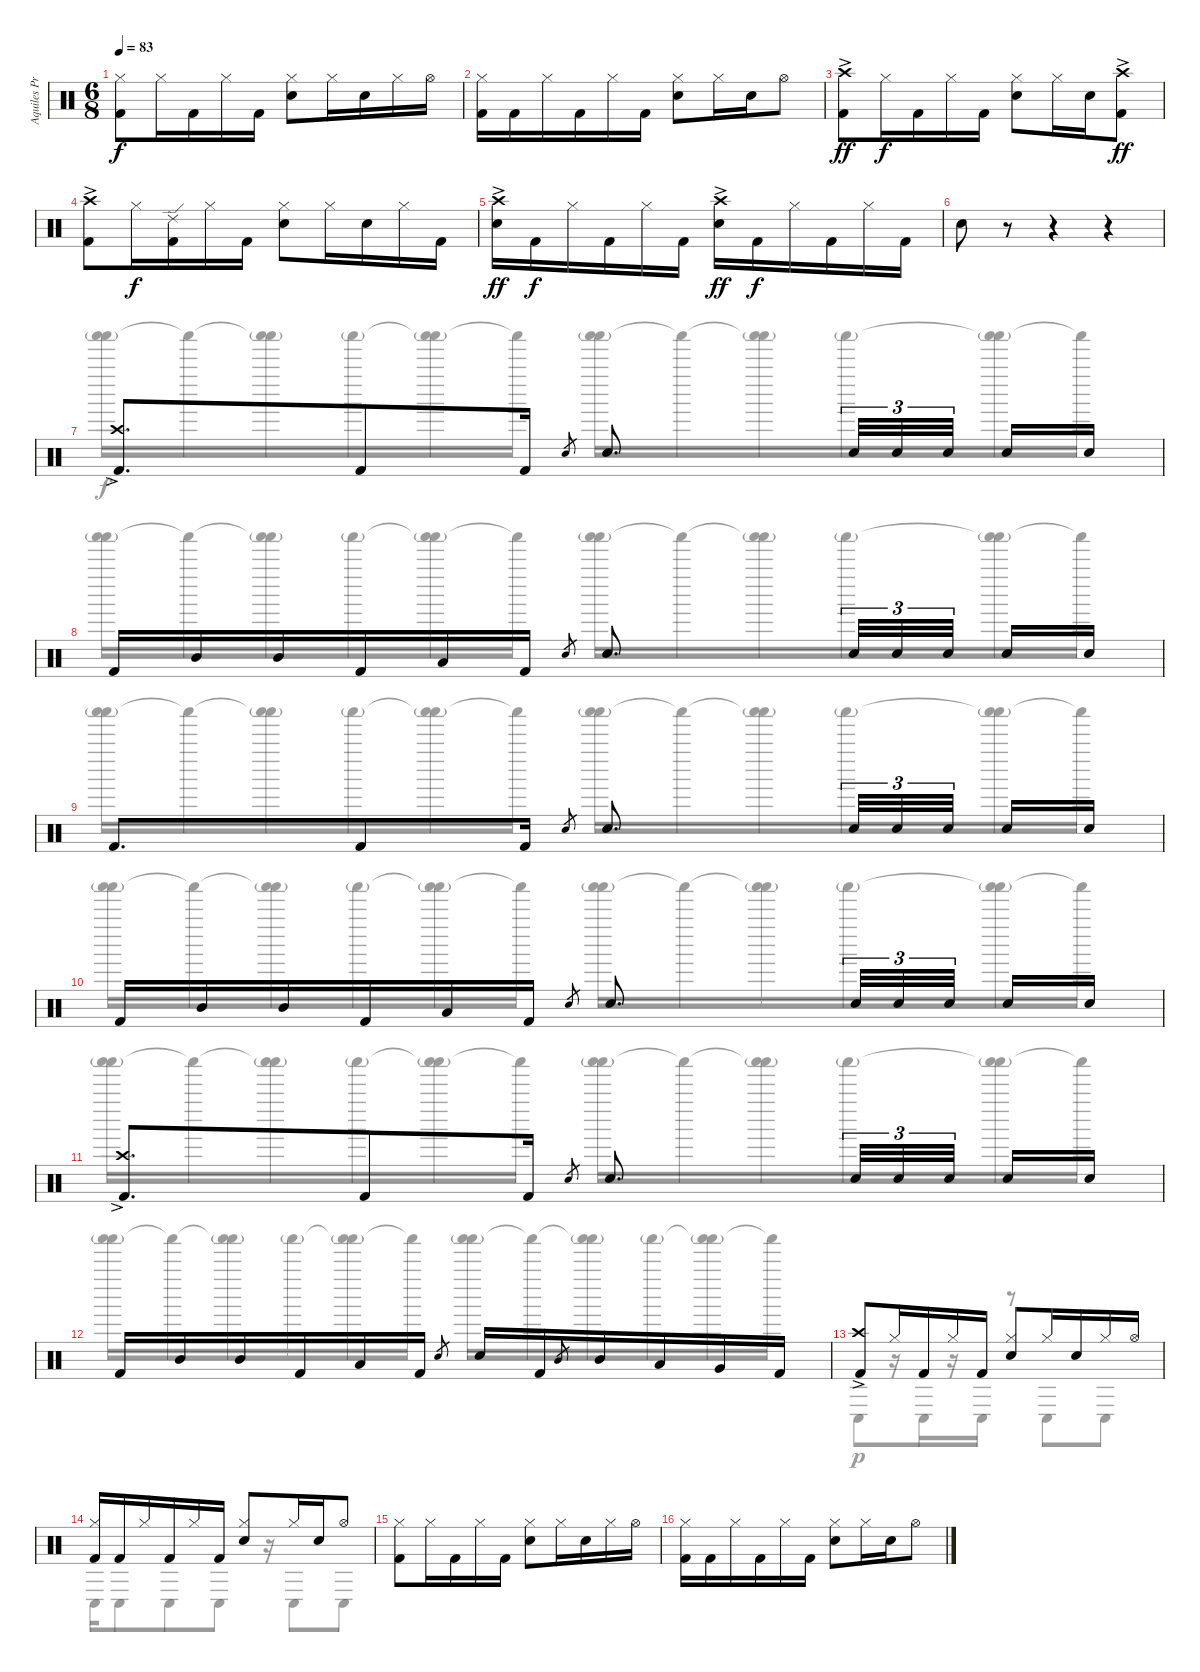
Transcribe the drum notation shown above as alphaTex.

\track ("Aquiles Priester" "Aquiles Pr") {instrument percussion}
\staff {score}
\articulation defaults
\voice
\ts (6 8)
\tempo 83
\clef neutral
\ks c
("Hi-Hat (closed)" "Kick (hit) 2").8{dy f} "Hi-Hat (closed)".16 "Kick (hit) 2".16 "Hi-Hat (closed)".16 "Kick (hit) 2".16 ("Hi-Hat (closed)" "Electric Snare (hit)").8 "Hi-Hat (closed)".16 "Electric Snare (hit)".16 "Hi-Hat (closed)".16 "Hi-Hat (open)".16 |
("Hi-Hat (closed)" "Kick (hit) 2").16 "Kick (hit) 2".16 "Hi-Hat (closed)".16 "Kick (hit) 2".16 "Hi-Hat (closed)".16 "Kick (hit) 2".16 ("Hi-Hat (closed)" "Electric Snare (hit)").8 "Hi-Hat (closed)".16 "Electric Snare (hit)".16 "Hi-Hat (open)".8 |
("Crash high (hit)"{ac} "Kick (hit) 2"{ac}).8{dy ff} "Hi-Hat (closed)".16{dy f} "Kick (hit) 2".16 "Hi-Hat (closed)".16 "Kick (hit) 2".16 ("Hi-Hat (closed)" "Electric Snare (hit)").8 "Hi-Hat (closed)".16 "Electric Snare (hit)".16 ("Crash high (hit)"{ac} "Kick (hit) 2"{ac}).8{dy ff} |
("Crash high (hit)"{ac} "Kick (hit) 2"{ac}).8 "Hi-Hat (closed)".16{dy f} ("Ride (edge) 2" "Kick (hit) 2").16 "Hi-Hat (closed)".16 "Kick (hit) 2".16 ("Hi-Hat (closed)" "Electric Snare (hit)").8 "Hi-Hat (closed)".16 "Electric Snare (hit)".16 "Hi-Hat (closed)".16 "Kick (hit) 2".16 |
("Crash high (hit)"{ac} "Electric Snare (hit)"{ac}).16{dy ff} "Kick (hit) 2".16{dy f} "Hi-Hat (closed)".16 "Kick (hit) 2".16 "Hi-Hat (closed)".16 "Kick (hit) 2".16 ("Crash high (hit)"{ac} "Electric Snare (hit)"{ac}).16{dy ff} "Kick (hit) 2".16{dy f} "Hi-Hat (closed)".16 "Kick (hit) 2".16 "Hi-Hat (closed)".16 "Kick (hit) 2".16 |
"Electric Snare (hit)".8 r.8 r.4 r.4 |
("Crash high (hit)"{ac} "Kick (hit) 2"{ac}).8{d} "Kick (hit) 2".8 "Kick (hit) 2".16 "Electric Snare (hit)".8{gr} "Electric Snare (hit)".8{d} "Electric Snare (hit)".32{tu (3 2)} "Electric Snare (hit)".32{tu (3 2)} "Electric Snare (hit)".32{tu (3 2) beam splitsecondary} "Electric Snare (hit)".16 "Electric Snare (hit)".16 |
"Kick (hit) 2".16 "Mid Tom (hit)".16 "Mid Tom (hit)".16 "Kick (hit) 2".16 "Low Tom (hit)".16 "Kick (hit) 2".16 "Electric Snare (hit)".8{gr} "Electric Snare (hit)".8{d} "Electric Snare (hit)".32{tu (3 2)} "Electric Snare (hit)".32{tu (3 2)} "Electric Snare (hit)".32{tu (3 2) beam splitsecondary} "Electric Snare (hit)".16 "Electric Snare (hit)".16 |
"Kick (hit) 2".8{d} "Kick (hit) 2".8 "Kick (hit) 2".16 "Electric Snare (hit)".8{gr} "Electric Snare (hit)".8{d} "Electric Snare (hit)".32{tu (3 2)} "Electric Snare (hit)".32{tu (3 2)} "Electric Snare (hit)".32{tu (3 2) beam splitsecondary} "Electric Snare (hit)".16 "Electric Snare (hit)".16 |
"Kick (hit) 2".16 "Mid Tom (hit)".16 "Mid Tom (hit)".16 "Kick (hit) 2".16 "Low Tom (hit)".16 "Kick (hit) 2".16 "Electric Snare (hit)".8{gr} "Electric Snare (hit)".8{d} "Electric Snare (hit)".32{tu (3 2)} "Electric Snare (hit)".32{tu (3 2)} "Electric Snare (hit)".32{tu (3 2) beam splitsecondary} "Electric Snare (hit)".16 "Electric Snare (hit)".16 |
("Crash high (hit)"{ac} "Kick (hit) 2"{ac}).8{d} "Kick (hit) 2".8 "Kick (hit) 2".16 "Electric Snare (hit)".8{gr} "Electric Snare (hit)".8{d} "Electric Snare (hit)".32{tu (3 2)} "Electric Snare (hit)".32{tu (3 2)} "Electric Snare (hit)".32{tu (3 2) beam splitsecondary} "Electric Snare (hit)".16 "Electric Snare (hit)".16 |
"Kick (hit) 2".16 "Mid Tom (hit)".16 "Mid Tom (hit)".16 "Kick (hit) 2".16 "Low Tom (hit)".16 "Kick (hit) 2".16 "Electric Snare (hit)".8{gr} "Electric Snare (hit)".16 "Kick (hit) 2".16 "Mid Tom (hit)".8{gr} "Mid Tom (hit)".16 "Low Tom (hit)".16 "Very Low Tom (hit)".16 "Kick (hit) 2".16 |
("Crash high (hit)"{ac} "Kick (hit) 2"{ac}).8 "Hi-Hat (closed)".16 "Kick (hit) 2".16 "Hi-Hat (closed)".16 "Kick (hit) 2".16 ("Hi-Hat (closed)" "Electric Snare (hit)").8 "Hi-Hat (closed)".16 "Electric Snare (hit)".16 "Hi-Hat (closed)".16 "Hi-Hat (open)".16 |
("Hi-Hat (closed)" "Kick (hit) 2").16 "Kick (hit) 2".16 "Hi-Hat (closed)".16 "Kick (hit) 2".16 "Hi-Hat (closed)".16 "Kick (hit) 2".16 ("Electric Snare (hit)" "Hi-Hat (closed)").8 "Hi-Hat (closed)".16 "Electric Snare (hit)".16 "Hi-Hat (open)".8 |
("Hi-Hat (closed)" "Kick (hit) 2").8 "Hi-Hat (closed)".16 "Kick (hit) 2".16 "Hi-Hat (closed)".16 "Kick (hit) 2".16 ("Hi-Hat (closed)" "Electric Snare (hit)").8 "Hi-Hat (closed)".16 "Electric Snare (hit)".16 "Hi-Hat (closed)".16 "Hi-Hat (open)".16 |
("Hi-Hat (closed)" "Kick (hit) 2").16 "Kick (hit) 2".16 "Hi-Hat (closed)".16 "Kick (hit) 2".16 "Hi-Hat (closed)".16 "Kick (hit) 2".16 ("Electric Snare (hit)" "Hi-Hat (closed)").8 "Hi-Hat (closed)".16 "Electric Snare (hit)".16 "Hi-Hat (open)".8
\voice
\clef neutral
\ottava regular
\simile none
\ks c
|
|
|
|
|
|
("Shaker (hit)"{g} "Shaker (hit)"{g}).16 "Shaker (hit)"{t}.16 ("Shaker (hit)"{t} "Shaker (hit)"{g}).16 "Shaker (hit)"{g}.16 ("Shaker (hit)"{t} "Shaker (hit)"{g}).16 "Shaker (hit)"{t}.16 ("Shaker (hit)"{g} "Shaker (hit)"{g}).16 "Shaker (hit)"{t}.16 ("Shaker (hit)"{t} "Shaker (hit)"{g}).16 "Shaker (hit)"{g}.16 ("Shaker (hit)"{t} "Shaker (hit)"{g}).16 "Shaker (hit)"{t}.16 |
("Shaker (hit)"{g} "Shaker (hit)"{g}).16 "Shaker (hit)"{t}.16 ("Shaker (hit)"{t} "Shaker (hit)"{g}).16 "Shaker (hit)"{g}.16 ("Shaker (hit)"{t} "Shaker (hit)"{g}).16 "Shaker (hit)"{t}.16 ("Shaker (hit)"{g} "Shaker (hit)"{g}).16 "Shaker (hit)"{t}.16 ("Shaker (hit)"{t} "Shaker (hit)"{g}).16 "Shaker (hit)"{g}.16 ("Shaker (hit)"{t} "Shaker (hit)"{g}).16 "Shaker (hit)"{t}.16 |
("Shaker (hit)"{g} "Shaker (hit)"{g}).16 "Shaker (hit)"{t}.16 ("Shaker (hit)"{t} "Shaker (hit)"{g}).16 "Shaker (hit)"{g}.16 ("Shaker (hit)"{t} "Shaker (hit)"{g}).16 "Shaker (hit)"{t}.16 ("Shaker (hit)"{g} "Shaker (hit)"{g}).16 "Shaker (hit)"{t}.16 ("Shaker (hit)"{t} "Shaker (hit)"{g}).16 "Shaker (hit)"{g}.16 ("Shaker (hit)"{t} "Shaker (hit)"{g}).16 "Shaker (hit)"{t}.16 |
("Shaker (hit)"{g} "Shaker (hit)"{g}).16 "Shaker (hit)"{t}.16 ("Shaker (hit)"{t} "Shaker (hit)"{g}).16 "Shaker (hit)"{g}.16 ("Shaker (hit)"{t} "Shaker (hit)"{g}).16 "Shaker (hit)"{t}.16 ("Shaker (hit)"{g} "Shaker (hit)"{g}).16 "Shaker (hit)"{t}.16 ("Shaker (hit)"{t} "Shaker (hit)"{g}).16 "Shaker (hit)"{g}.16 ("Shaker (hit)"{t} "Shaker (hit)"{g}).16 "Shaker (hit)"{t}.16 |
("Shaker (hit)"{g} "Shaker (hit)"{g}).16 "Shaker (hit)"{t}.16 ("Shaker (hit)"{t} "Shaker (hit)"{g}).16 "Shaker (hit)"{g}.16 ("Shaker (hit)"{t} "Shaker (hit)"{g}).16 "Shaker (hit)"{t}.16 ("Shaker (hit)"{g} "Shaker (hit)"{g}).16 "Shaker (hit)"{t}.16 ("Shaker (hit)"{t} "Shaker (hit)"{g}).16 "Shaker (hit)"{g}.16 ("Shaker (hit)"{t} "Shaker (hit)"{g}).16 "Shaker (hit)"{t}.16 |
("Shaker (hit)"{g} "Shaker (hit)"{g}).16 "Shaker (hit)"{t}.16 ("Shaker (hit)"{t} "Shaker (hit)"{g}).16 "Shaker (hit)"{g}.16 ("Shaker (hit)"{t} "Shaker (hit)"{g}).16 "Shaker (hit)"{t}.16 ("Shaker (hit)"{g} "Shaker (hit)"{g}).16 "Shaker (hit)"{t}.16 ("Shaker (hit)"{t} "Shaker (hit)"{g}).16 "Shaker (hit)"{g}.16 ("Shaker (hit)"{t} "Shaker (hit)"{g}).16 "Shaker (hit)"{t}.16 |
"Conga low (hit)".8{dy p} r.16 "Conga low (hit)".16 r.16 "Conga low (hit)".16 r.8 "Conga low (hit)".8 "Conga low (hit)".8 |
"Conga low (hit)".16 "Conga low (hit)".8 "Conga low (hit)".8 "Conga low (hit)".8 r.16 "Conga low (hit)".8 "Conga low (hit)".8 |
|
